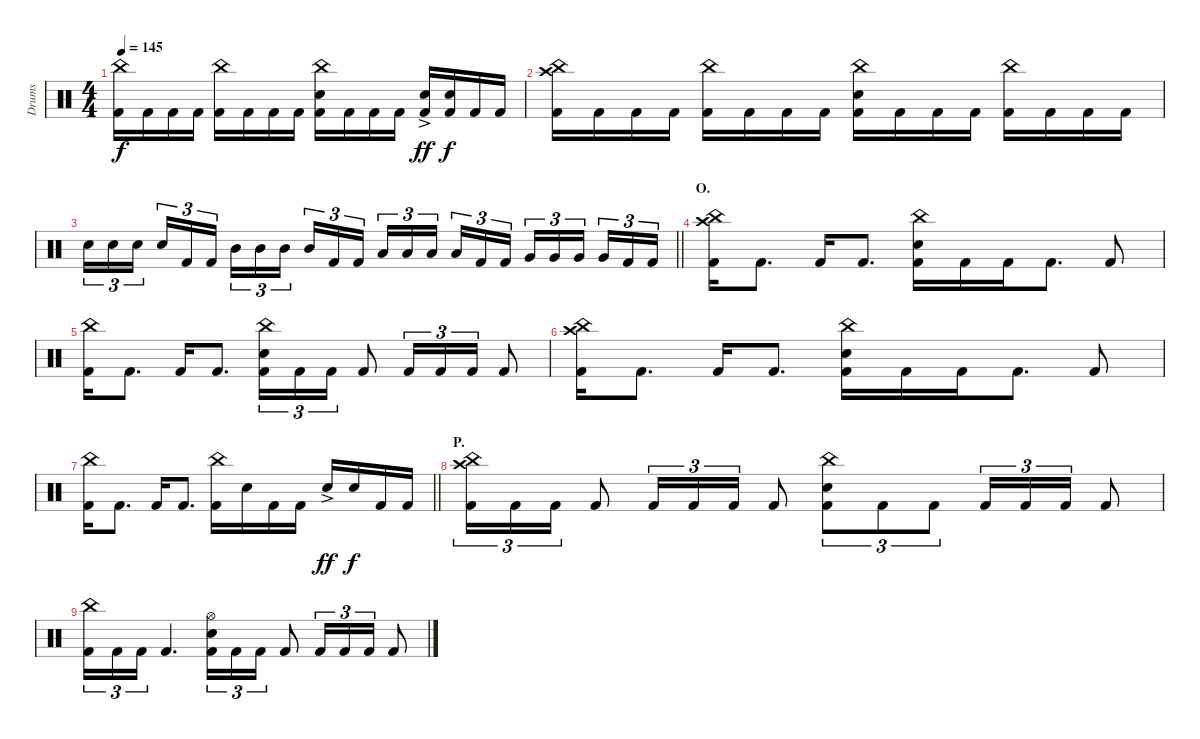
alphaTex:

\track ("Drums" "Drums") {instrument percussion}
\staff {score}
\articulation defaults
\ts (4 4)
\tempo 145
\clef neutral
\ks c
("China (hit)" "Kick (hit) 2").16{dy f} "Kick (hit) 2".16 "Kick (hit) 2".16 "Kick (hit) 2".16 ("China (hit)" "Kick (hit) 2").16 "Kick (hit) 2".16 "Kick (hit) 2".16 "Kick (hit) 2".16 ("China (hit)" "Electric Snare (hit)" "Kick (hit) 2").16 "Kick (hit) 2".16 "Kick (hit) 2".16 "Kick (hit) 2".16 ("Electric Snare (hit)"{ac} "Kick (hit) 2").16{dy ff} ("Electric Snare (hit)" "Kick (hit) 2").16{dy f} "Kick (hit) 2".16 "Kick (hit) 2".16 |
("China (hit)" "Crash high (hit)" "Kick (hit) 2").16 "Kick (hit) 2".16 "Kick (hit) 2".16 "Kick (hit) 2".16 ("China (hit)" "Kick (hit) 2").16 "Kick (hit) 2".16 "Kick (hit) 2".16 "Kick (hit) 2".16 ("China (hit)" "Electric Snare (hit)" "Kick (hit) 2").16 "Kick (hit) 2".16 "Kick (hit) 2".16 "Kick (hit) 2".16 ("China (hit)" "Kick (hit) 2").16 "Kick (hit) 2".16 "Kick (hit) 2".16 "Kick (hit) 2".16 |
\barLineRight lightlight "Electric Snare (hit)".16{tu (3 2)} "Electric Snare (hit)".16{tu (3 2)} "Electric Snare (hit)".16{tu (3 2) beam splitsecondary} "Electric Snare (hit)".16{tu (3 2)} "Kick (hit) 2".16{tu (3 2)} "Kick (hit) 2".16{tu (3 2)} "Mid Tom (hit)".16{tu (3 2)} "Mid Tom (hit)".16{tu (3 2)} "Mid Tom (hit)".16{tu (3 2) beam splitsecondary} "Mid Tom (hit)".16{tu (3 2)} "Kick (hit) 2".16{tu (3 2)} "Kick (hit) 2".16{tu (3 2)} "Low Tom (hit)".16{tu (3 2)} "Low Tom (hit)".16{tu (3 2)} "Low Tom (hit)".16{tu (3 2) beam splitsecondary} "Low Tom (hit)".16{tu (3 2)} "Kick (hit) 2".16{tu (3 2)} "Kick (hit) 2".16{tu (3 2)} "Very Low Tom (hit)".16{tu (3 2)} "Very Low Tom (hit)".16{tu (3 2)} "Very Low Tom (hit)".16{tu (3 2) beam splitsecondary} "Very Low Tom (hit)".16{tu (3 2)} "Kick (hit) 2".16{tu (3 2)} "Kick (hit) 2".16{tu (3 2)}
|
\section ("" "O.")
("China (hit)" "Crash high (hit)" "Kick (hit) 2").16 "Kick (hit) 2".8{d} "Kick (hit) 2".16 "Kick (hit) 2".8{d} ("China (hit)" "Electric Snare (hit)" "Kick (hit) 2").16 "Kick (hit) 2".16 "Kick (hit) 2".16 "Kick (hit) 2".8{d} "Kick (hit) 2".8 |
("China (hit)" "Kick (hit) 2").16 "Kick (hit) 2".8{d} "Kick (hit) 2".16 "Kick (hit) 2".8{d} ("China (hit)" "Electric Snare (hit)" "Kick (hit) 2").16{tu (3 2)} "Kick (hit) 2".16{tu (3 2)} "Kick (hit) 2".16{tu (3 2)} "Kick (hit) 2".8 "Kick (hit) 2".16{tu (3 2)} "Kick (hit) 2".16{tu (3 2)} "Kick (hit) 2".16{tu (3 2)} "Kick (hit) 2".8 |
("China (hit)" "Crash high (hit)" "Kick (hit) 2").16 "Kick (hit) 2".8{d} "Kick (hit) 2".16 "Kick (hit) 2".8{d} ("China (hit)" "Electric Snare (hit)" "Kick (hit) 2").16 "Kick (hit) 2".16 "Kick (hit) 2".16 "Kick (hit) 2".8{d} "Kick (hit) 2".8 |
\barLineRight lightlight
("China (hit)" "Kick (hit) 2").16 "Kick (hit) 2".8{d} "Kick (hit) 2".16 "Kick (hit) 2".8{d} ("China (hit)" "Kick (hit) 2").16 "Electric Snare (hit)".16 "Kick (hit) 2".16 "Kick (hit) 2".16 "Electric Snare (hit)"{ac}.16{dy ff} "Electric Snare (hit)".16{dy f} "Kick (hit) 2".16 "Kick (hit) 2".16 |
\section ("" "P.")
("China (hit)" "Crash high (hit)" "Kick (hit) 2").16{tu (3 2)} "Kick (hit) 2".16{tu (3 2)} "Kick (hit) 2".16{tu (3 2)} "Kick (hit) 2".8 "Kick (hit) 2".16{tu (3 2)} "Kick (hit) 2".16{tu (3 2)} "Kick (hit) 2".16{tu (3 2)} "Kick (hit) 2".8 ("China (hit)" "Electric Snare (hit)" "Kick (hit) 2").8{tu (3 2)} "Kick (hit) 2".8{tu (3 2)} "Kick (hit) 2".8{tu (3 2)} "Kick (hit) 2".16{tu (3 2)} "Kick (hit) 2".16{tu (3 2)} "Kick (hit) 2".16{tu (3 2)} "Kick (hit) 2".8 |
("China (hit)" "Kick (hit) 2").16{tu (3 2)} "Kick (hit) 2".16{tu (3 2)} "Kick (hit) 2".16{tu (3 2)} "Kick (hit) 2".4{d} ("Hi-Hat (open)" "Electric Snare (hit)" "Kick (hit) 2").16{tu (3 2)} "Kick (hit) 2".16{tu (3 2)} "Kick (hit) 2".16{tu (3 2)} "Kick (hit) 2".8 "Kick (hit) 2".16{tu (3 2)} "Kick (hit) 2".16{tu (3 2)} "Kick (hit) 2".16{tu (3 2)} "Kick (hit) 2".8
